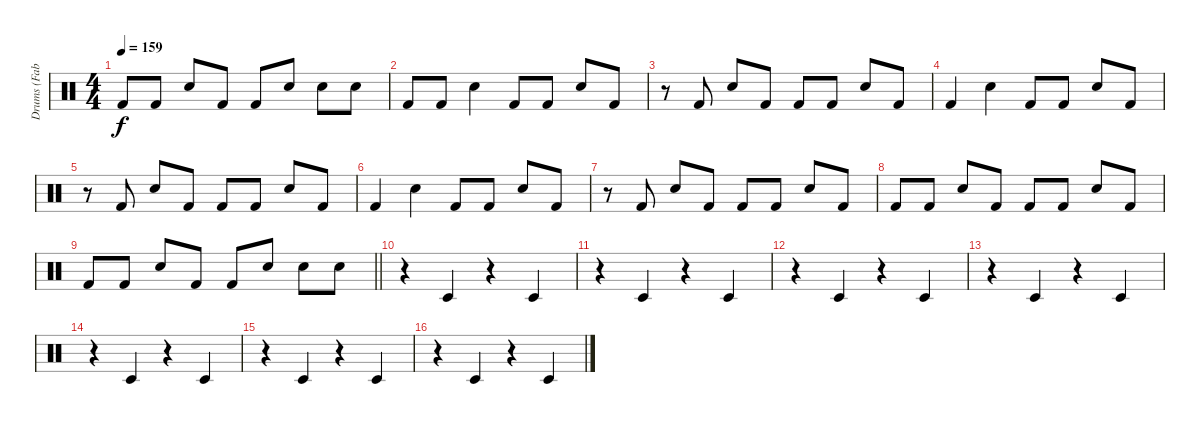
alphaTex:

\track ("Drums (Fabio)" "Drums (Fab") {instrument percussion}
\staff {score}
\articulation defaults
\ts (4 4)
\tempo 159
\clef neutral
\ks c "Kick (hit) 2".8{dy f} "Kick (hit) 2".8 "Snare (hit) 2".8 "Kick (hit) 2".8 "Kick (hit) 2".8 "Snare (hit) 2"{tr (38 16)}.8 "Snare (hit) 2"{tr (38 16)}.8 "Snare (hit) 2"{tr (38 16)}.8
|
"Kick (hit) 2".8 "Kick (hit) 2".8 "Snare (hit) 2".4 "Kick (hit) 2".8 "Kick (hit) 2".8 "Snare (hit) 2".8 "Kick (hit) 2".8 |
r.8 "Kick (hit) 2".8 "Snare (hit) 2".8 "Kick (hit) 2".8 "Kick (hit) 2".8 "Kick (hit) 2".8 "Snare (hit) 2".8 "Kick (hit) 2".8 |
"Kick (hit) 2".4 "Snare (hit) 2".4 "Kick (hit) 2".8 "Kick (hit) 2".8 "Snare (hit) 2".8 "Kick (hit) 2".8 |
r.8 "Kick (hit) 2".8 "Snare (hit) 2".8 "Kick (hit) 2".8 "Kick (hit) 2".8 "Kick (hit) 2".8 "Snare (hit) 2".8 "Kick (hit) 2".8 |
"Kick (hit) 2".4 "Snare (hit) 2".4 "Kick (hit) 2".8 "Kick (hit) 2".8 "Snare (hit) 2".8 "Kick (hit) 2".8 |
r.8 "Kick (hit) 2".8 "Snare (hit) 2".8 "Kick (hit) 2".8 "Kick (hit) 2".8 "Kick (hit) 2".8 "Snare (hit) 2".8 "Kick (hit) 2".8 |
"Kick (hit) 2".8 "Kick (hit) 2".8 "Snare (hit) 2".8 "Kick (hit) 2".8 "Kick (hit) 2".8 "Kick (hit) 2".8 "Snare (hit) 2".8 "Kick (hit) 2".8 |
\barLineRight lightlight "Kick (hit) 2".8 "Kick (hit) 2".8 "Snare (hit) 2".8 "Kick (hit) 2".8 "Kick (hit) 2".8 "Snare (hit) 2"{tr (38 16)}.8 "Snare (hit) 2"{tr (38 16)}.8 "Snare (hit) 2"{tr (38 16)}.8
|
r.4 "Timbale low (hit)".4 r.4 "Timbale low (hit)".4 |
r.4 "Timbale low (hit)".4 r.4 "Timbale low (hit)".4 |
r.4 "Timbale low (hit)".4 r.4 "Timbale low (hit)".4 |
r.4 "Timbale low (hit)".4 r.4 "Timbale low (hit)".4 |
r.4 "Timbale low (hit)".4 r.4 "Timbale low (hit)".4 |
r.4 "Timbale low (hit)".4 r.4 "Timbale low (hit)".4 |
r.4 "Timbale low (hit)".4 r.4 "Timbale low (hit)".4
